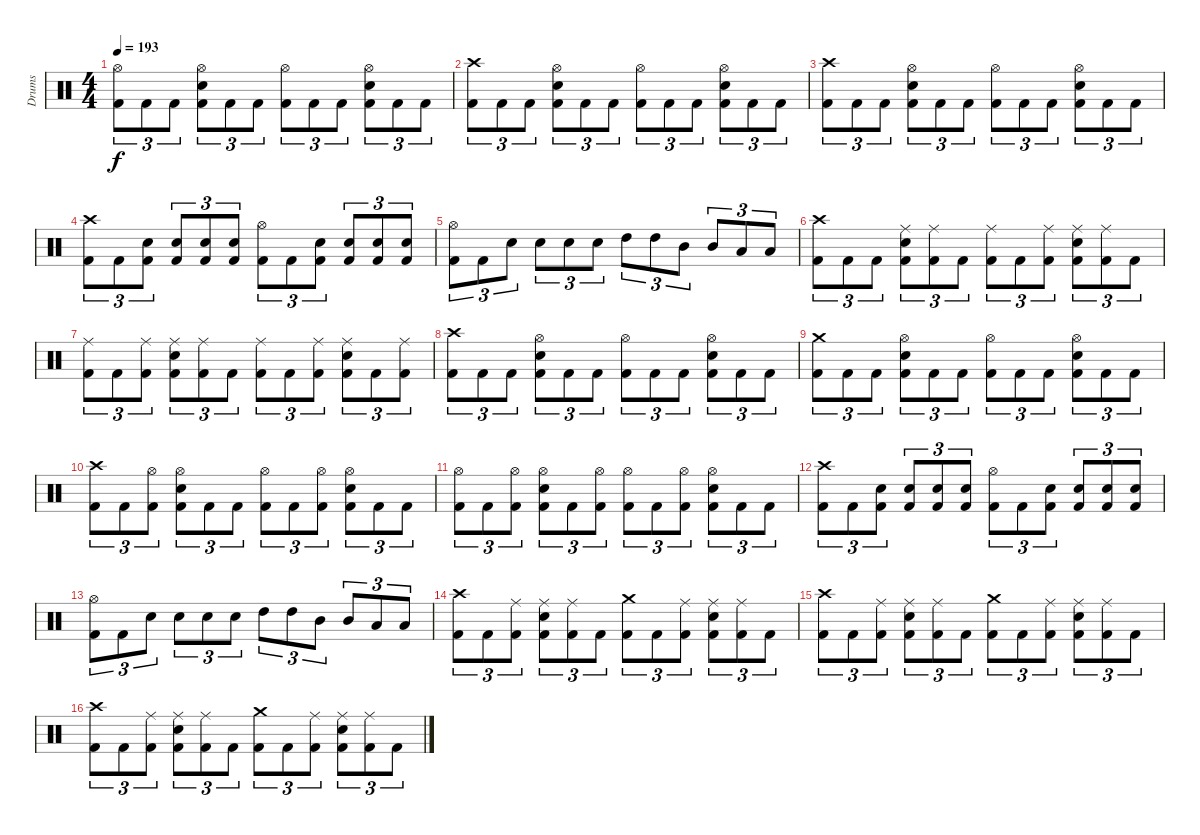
\track ("Drums" "Drums") {instrument percussion}
\staff {score}
\articulation defaults
\ts (4 4)
\tempo 193
\clef neutral
\ks c
("Hi-Hat (open)" "Kick (hit) 2").8{tu (3 2) dy f} "Kick (hit) 2".8{tu (3 2)} "Kick (hit) 2".8{tu (3 2)} ("Hi-Hat (open)" "Electric Snare (hit)" "Kick (hit) 2").8{tu (3 2)} "Kick (hit) 2".8{tu (3 2)} "Kick (hit) 2".8{tu (3 2)} ("Hi-Hat (open)" "Kick (hit) 2").8{tu (3 2)} "Kick (hit) 2".8{tu (3 2)} "Kick (hit) 2".8{tu (3 2)} ("Hi-Hat (open)" "Electric Snare (hit)" "Kick (hit) 2").8{tu (3 2)} "Kick (hit) 2".8{tu (3 2)} "Kick (hit) 2".8{tu (3 2)} |
("Crash high (hit)" "Kick (hit) 2").8{tu (3 2)} "Kick (hit) 2".8{tu (3 2)} "Kick (hit) 2".8{tu (3 2)} ("Hi-Hat (open)" "Electric Snare (hit)" "Kick (hit) 2").8{tu (3 2)} "Kick (hit) 2".8{tu (3 2)} "Kick (hit) 2".8{tu (3 2)} ("Hi-Hat (open)" "Kick (hit) 2").8{tu (3 2)} "Kick (hit) 2".8{tu (3 2)} "Kick (hit) 2".8{tu (3 2)} ("Hi-Hat (open)" "Electric Snare (hit)" "Kick (hit) 2").8{tu (3 2)} "Kick (hit) 2".8{tu (3 2)} "Kick (hit) 2".8{tu (3 2)} |
("Crash high (hit)" "Kick (hit) 2").8{tu (3 2)} "Kick (hit) 2".8{tu (3 2)} "Kick (hit) 2".8{tu (3 2)} ("Hi-Hat (open)" "Electric Snare (hit)" "Kick (hit) 2").8{tu (3 2)} "Kick (hit) 2".8{tu (3 2)} "Kick (hit) 2".8{tu (3 2)} ("Hi-Hat (open)" "Kick (hit) 2").8{tu (3 2)} "Kick (hit) 2".8{tu (3 2)} "Kick (hit) 2".8{tu (3 2)} ("Hi-Hat (open)" "Electric Snare (hit)" "Kick (hit) 2").8{tu (3 2)} "Kick (hit) 2".8{tu (3 2)} "Kick (hit) 2".8{tu (3 2)} |
("Crash high (hit)" "Kick (hit) 2").8{tu (3 2)} "Kick (hit) 2".8{tu (3 2)} ("Electric Snare (hit)" "Kick (hit) 2").8{tu (3 2)} ("Electric Snare (hit)" "Kick (hit) 2").8{tu (3 2)} ("Electric Snare (hit)" "Kick (hit) 2").8{tu (3 2)} ("Electric Snare (hit)" "Kick (hit) 2").8{tu (3 2)} ("Hi-Hat (open)" "Kick (hit) 2").8{tu (3 2)} "Kick (hit) 2".8{tu (3 2)} ("Electric Snare (hit)" "Kick (hit) 2").8{tu (3 2)} ("Electric Snare (hit)" "Kick (hit) 2").8{tu (3 2)} ("Electric Snare (hit)" "Kick (hit) 2").8{tu (3 2)} ("Electric Snare (hit)" "Kick (hit) 2").8{tu (3 2)} |
("Hi-Hat (open)" "Kick (hit) 2").8{tu (3 2)} "Kick (hit) 2".8{tu (3 2)} "Electric Snare (hit)".8{tu (3 2)} "Electric Snare (hit)".8{tu (3 2)} "Electric Snare (hit)".8{tu (3 2)} "Electric Snare (hit)".8{tu (3 2)} "High Tom (hit)".8{tu (3 2)} "High Tom (hit)".8{tu (3 2)} "Mid Tom (hit)".8{tu (3 2)} "Mid Tom (hit)".8{tu (3 2)} "Low Tom (hit)".8{tu (3 2)} "Low Tom (hit)".8{tu (3 2)} |
("Crash high (hit)" "Kick (hit) 2").8{tu (3 2)} "Kick (hit) 2".8{tu (3 2)} "Kick (hit) 2".8{tu (3 2)} ("Ride (middle)" "Electric Snare (hit)" "Kick (hit) 2").8{tu (3 2)} ("Ride (middle)" "Kick (hit) 2").8{tu (3 2)} "Kick (hit) 2".8{tu (3 2)} ("Ride (middle)" "Kick (hit) 2").8{tu (3 2)} "Kick (hit) 2".8{tu (3 2)} ("Ride (middle)" "Kick (hit) 2").8{tu (3 2)} ("Ride (middle)" "Electric Snare (hit)" "Kick (hit) 2").8{tu (3 2)} ("Ride (middle)" "Kick (hit) 2").8{tu (3 2)} "Kick (hit) 2".8{tu (3 2)} |
("Ride (middle)" "Kick (hit) 2").8{tu (3 2)} "Kick (hit) 2".8{tu (3 2)} ("Ride (middle)" "Kick (hit) 2").8{tu (3 2)} ("Ride (middle)" "Electric Snare (hit)" "Kick (hit) 2").8{tu (3 2)} ("Ride (middle)" "Kick (hit) 2").8{tu (3 2)} "Kick (hit) 2".8{tu (3 2)} ("Ride (middle)" "Kick (hit) 2").8{tu (3 2)} "Kick (hit) 2".8{tu (3 2)} ("Ride (middle)" "Kick (hit) 2").8{tu (3 2)} ("Ride (middle)" "Electric Snare (hit)" "Kick (hit) 2").8{tu (3 2)} "Kick (hit) 2".8{tu (3 2)} ("Ride (middle)" "Kick (hit) 2").8{tu (3 2)} |
("Crash high (hit)" "Kick (hit) 2").8{tu (3 2)} "Kick (hit) 2".8{tu (3 2)} "Kick (hit) 2".8{tu (3 2)} ("Hi-Hat (open)" "Electric Snare (hit)" "Kick (hit) 2").8{tu (3 2)} "Kick (hit) 2".8{tu (3 2)} "Kick (hit) 2".8{tu (3 2)} ("Hi-Hat (open)" "Kick (hit) 2").8{tu (3 2)} "Kick (hit) 2".8{tu (3 2)} "Kick (hit) 2".8{tu (3 2)} ("Hi-Hat (open)" "Electric Snare (hit)" "Kick (hit) 2").8{tu (3 2)} "Kick (hit) 2".8{tu (3 2)} "Kick (hit) 2".8{tu (3 2)} |
("Crash medium (hit)" "Kick (hit) 2").8{tu (3 2)} "Kick (hit) 2".8{tu (3 2)} "Kick (hit) 2".8{tu (3 2)} ("Hi-Hat (open)" "Electric Snare (hit)" "Kick (hit) 2").8{tu (3 2)} "Kick (hit) 2".8{tu (3 2)} "Kick (hit) 2".8{tu (3 2)} ("Hi-Hat (open)" "Kick (hit) 2").8{tu (3 2)} "Kick (hit) 2".8{tu (3 2)} "Kick (hit) 2".8{tu (3 2)} ("Hi-Hat (open)" "Electric Snare (hit)" "Kick (hit) 2").8{tu (3 2)} "Kick (hit) 2".8{tu (3 2)} "Kick (hit) 2".8{tu (3 2)} |
("Crash high (hit)" "Kick (hit) 2").8{tu (3 2)} "Kick (hit) 2".8{tu (3 2)} ("Hi-Hat (open)" "Kick (hit) 2").8{tu (3 2)} ("Hi-Hat (open)" "Electric Snare (hit)" "Kick (hit) 2").8{tu (3 2)} "Kick (hit) 2".8{tu (3 2)} "Kick (hit) 2".8{tu (3 2)} ("Hi-Hat (open)" "Kick (hit) 2").8{tu (3 2)} "Kick (hit) 2".8{tu (3 2)} ("Hi-Hat (open)" "Kick (hit) 2").8{tu (3 2)} ("Hi-Hat (open)" "Electric Snare (hit)" "Kick (hit) 2").8{tu (3 2)} "Kick (hit) 2".8{tu (3 2)} "Kick (hit) 2".8{tu (3 2)} |
("Hi-Hat (open)" "Kick (hit) 2").8{tu (3 2)} "Kick (hit) 2".8{tu (3 2)} ("Hi-Hat (open)" "Kick (hit) 2").8{tu (3 2)} ("Hi-Hat (open)" "Electric Snare (hit)" "Kick (hit) 2").8{tu (3 2)} "Kick (hit) 2".8{tu (3 2)} ("Hi-Hat (open)" "Kick (hit) 2").8{tu (3 2)} ("Hi-Hat (open)" "Kick (hit) 2").8{tu (3 2)} "Kick (hit) 2".8{tu (3 2)} ("Hi-Hat (open)" "Kick (hit) 2").8{tu (3 2)} ("Hi-Hat (open)" "Electric Snare (hit)" "Kick (hit) 2").8{tu (3 2)} "Kick (hit) 2".8{tu (3 2)} "Kick (hit) 2".8{tu (3 2)} |
("Crash high (hit)" "Kick (hit) 2").8{tu (3 2)} "Kick (hit) 2".8{tu (3 2)} ("Electric Snare (hit)" "Kick (hit) 2").8{tu (3 2)} ("Electric Snare (hit)" "Kick (hit) 2").8{tu (3 2)} ("Electric Snare (hit)" "Kick (hit) 2").8{tu (3 2)} ("Electric Snare (hit)" "Kick (hit) 2").8{tu (3 2)} ("Hi-Hat (open)" "Kick (hit) 2").8{tu (3 2)} "Kick (hit) 2".8{tu (3 2)} ("Electric Snare (hit)" "Kick (hit) 2").8{tu (3 2)} ("Electric Snare (hit)" "Kick (hit) 2").8{tu (3 2)} ("Electric Snare (hit)" "Kick (hit) 2").8{tu (3 2)} ("Electric Snare (hit)" "Kick (hit) 2").8{tu (3 2)} |
("Hi-Hat (open)" "Kick (hit) 2").8{tu (3 2)} "Kick (hit) 2".8{tu (3 2)} "Electric Snare (hit)".8{tu (3 2)} "Electric Snare (hit)".8{tu (3 2)} "Electric Snare (hit)".8{tu (3 2)} "Electric Snare (hit)".8{tu (3 2)} "High Tom (hit)".8{tu (3 2)} "High Tom (hit)".8{tu (3 2)} "Mid Tom (hit)".8{tu (3 2)} "Mid Tom (hit)".8{tu (3 2)} "Low Tom (hit)".8{tu (3 2)} "Low Tom (hit)".8{tu (3 2)} |
("Crash high (hit)" "Kick (hit) 2").8{tu (3 2)} "Kick (hit) 2".8{tu (3 2)} ("Ride (middle)" "Kick (hit) 2").8{tu (3 2)} ("Ride (middle)" "Electric Snare (hit)" "Kick (hit) 2").8{tu (3 2)} ("Ride (middle)" "Kick (hit) 2").8{tu (3 2)} "Kick (hit) 2".8{tu (3 2)} ("Crash medium (hit)" "Kick (hit) 2").8{tu (3 2)} "Kick (hit) 2".8{tu (3 2)} ("Ride (middle)" "Kick (hit) 2").8{tu (3 2)} ("Ride (middle)" "Electric Snare (hit)" "Kick (hit) 2").8{tu (3 2)} ("Ride (middle)" "Kick (hit) 2").8{tu (3 2)} "Kick (hit) 2".8{tu (3 2)} |
("Crash high (hit)" "Kick (hit) 2").8{tu (3 2)} "Kick (hit) 2".8{tu (3 2)} ("Ride (middle)" "Kick (hit) 2").8{tu (3 2)} ("Ride (middle)" "Electric Snare (hit)" "Kick (hit) 2").8{tu (3 2)} ("Ride (middle)" "Kick (hit) 2").8{tu (3 2)} "Kick (hit) 2".8{tu (3 2)} ("Crash medium (hit)" "Kick (hit) 2").8{tu (3 2)} "Kick (hit) 2".8{tu (3 2)} ("Ride (middle)" "Kick (hit) 2").8{tu (3 2)} ("Ride (middle)" "Electric Snare (hit)" "Kick (hit) 2").8{tu (3 2)} ("Ride (middle)" "Kick (hit) 2").8{tu (3 2)} "Kick (hit) 2".8{tu (3 2)} |
("Crash high (hit)" "Kick (hit) 2").8{tu (3 2)} "Kick (hit) 2".8{tu (3 2)} ("Ride (middle)" "Kick (hit) 2").8{tu (3 2)} ("Ride (middle)" "Electric Snare (hit)" "Kick (hit) 2").8{tu (3 2)} ("Ride (middle)" "Kick (hit) 2").8{tu (3 2)} "Kick (hit) 2".8{tu (3 2)} ("Crash medium (hit)" "Kick (hit) 2").8{tu (3 2)} "Kick (hit) 2".8{tu (3 2)} ("Ride (middle)" "Kick (hit) 2").8{tu (3 2)} ("Ride (middle)" "Electric Snare (hit)" "Kick (hit) 2").8{tu (3 2)} ("Ride (middle)" "Kick (hit) 2").8{tu (3 2)} "Kick (hit) 2".8{tu (3 2)}
